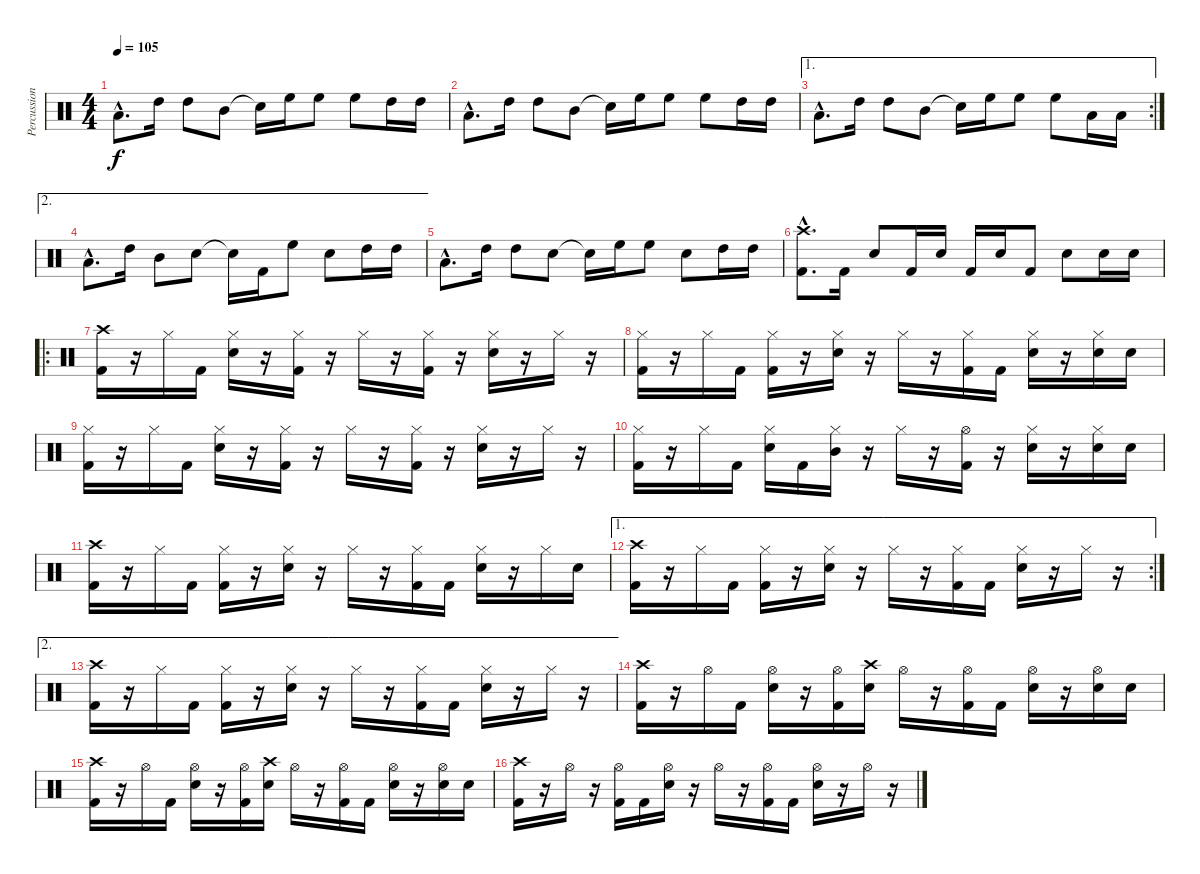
\track ("Percussion" "Percussion") {instrument percussion}
\staff {score}
\articulation defaults
\ts (4 4)
\tempo 105
\clef neutral
\ks c "Low Floor Tom (hit)"{hac}.8{d dy f} "High Tom (hit)".16 "High Tom (hit)".8 "Mid Tom (hit)".8 "Snare (hit)"{t}.16 "High Floor Tom (hit)".16 "High Floor Tom (hit)".8 "High Floor Tom (hit)".8 "High Tom (hit)".16 "High Tom (hit)".16
|
"Low Floor Tom (hit)"{hac}.8{d} "High Tom (hit)".16 "High Tom (hit)".8 "Mid Tom (hit)".8 "Snare (hit)"{t}.16 "High Floor Tom (hit)".16 "High Floor Tom (hit)".8 "High Floor Tom (hit)".8 "High Tom (hit)".16 "High Tom (hit)".16 |
\ae 1
\rc 2 "Low Floor Tom (hit)"{hac}.8{d} "High Tom (hit)".16 "High Tom (hit)".8 "Mid Tom (hit)".8 "Snare (hit)"{t}.16 "High Floor Tom (hit)".16 "High Floor Tom (hit)".8 "High Floor Tom (hit)".8 "Low Floor Tom (hit)".16 "Low Floor Tom (hit)".16
|
\ae 2 "Low Floor Tom (hit)"{hac}.8{d} "High Tom (hit)".16 "Mid Tom (hit)".8 "Snare (hit) 2".8 "Snare (hit)"{t}.16 "Kick (hit) 2".16 "High Floor Tom (hit)".8 "Snare (hit) 2".8 "High Tom (hit)".16 "High Tom (hit)".16
|
"Low Floor Tom (hit)"{hac}.8{d} "High Tom (hit)".16 "High Tom (hit)".8 "Snare (hit) 2".8 "Snare (hit)"{t}.16 "High Floor Tom (hit)".16 "High Floor Tom (hit)".8 "Snare (hit) 2".8 "High Tom (hit)".16 "High Tom (hit)".16 |
("Crash high (hit)"{hac} "Kick (hit) 2"{hac}).8{d} "Kick (hit) 2".16 "Snare (hit) 2".8 "Kick (hit) 2".16 "Snare (hit) 2".16 "Kick (hit) 2".16 "Snare (hit) 2".16 "Kick (hit) 2".8 "Snare (hit) 2".8 "Snare (hit) 2".16 "Snare (hit) 2".16 |
\ro
("Crash high (hit)" "Kick (hit) 2").16 r.16 "Hi-Hat (closed)".16 "Kick (hit) 2".16 ("Hi-Hat (closed)" "Snare (hit) 2").16 r.16 ("Hi-Hat (closed)" "Kick (hit) 2").16 r.16 "Hi-Hat (closed)".16 r.16 ("Hi-Hat (closed)" "Kick (hit) 2").16 r.16 ("Hi-Hat (closed)" "Snare (hit) 2").16 r.16 "Hi-Hat (closed)".16 r.16 |
("Hi-Hat (closed)" "Kick (hit) 2").16 r.16 "Hi-Hat (closed)".16 "Kick (hit) 2".16 ("Hi-Hat (closed)" "Kick (hit) 2").16 r.16 ("Hi-Hat (closed)" "Snare (hit) 2").16 r.16 "Hi-Hat (closed)".16 r.16 ("Hi-Hat (closed)" "Kick (hit) 2").16 "Kick (hit) 2".16 ("Hi-Hat (closed)" "Snare (hit) 2").16 r.16 ("Hi-Hat (closed)" "Snare (hit) 2").16 "Snare (hit) 2".16 |
("Hi-Hat (closed)" "Kick (hit) 2").16 r.16 "Hi-Hat (closed)".16 "Kick (hit) 2".16 ("Hi-Hat (closed)" "Snare (hit) 2").16 r.16 ("Hi-Hat (closed)" "Kick (hit) 2").16 r.16 "Hi-Hat (closed)".16 r.16 ("Hi-Hat (closed)" "Kick (hit) 2").16 r.16 ("Hi-Hat (closed)" "Snare (hit) 2").16 r.16 "Hi-Hat (closed)".16 r.16 |
("Hi-Hat (closed)" "Kick (hit) 2").16 r.16 "Hi-Hat (closed)".16 "Kick (hit) 2".16 ("Hi-Hat (closed)" "Snare (hit) 2").16 "Kick (hit) 2".16 ("Hi-Hat (closed)" "Mid Tom (hit)").16 r.16 "Hi-Hat (closed)".16 r.16 ("Hi-Hat (open)" "Kick (hit) 2").16 r.16 ("Hi-Hat (closed)" "Snare (hit) 2").16 r.16 ("Hi-Hat (closed)" "Snare (hit) 2").16 "Snare (hit) 2".16 |
("Crash high (hit)" "Kick (hit) 2").16 r.16 "Hi-Hat (closed)".16 "Kick (hit) 2".16 ("Hi-Hat (closed)" "Kick (hit) 2").16 r.16 ("Hi-Hat (closed)" "Snare (hit) 2").16 r.16 "Hi-Hat (closed)".16 r.16 ("Hi-Hat (closed)" "Kick (hit) 2").16 "Kick (hit) 2".16 ("Hi-Hat (closed)" "Snare (hit) 2").16 r.16 "Hi-Hat (closed)".16 "Snare (hit) 2".16 |
\ae 1
\rc 2
("Crash high (hit)" "Kick (hit) 2").16 r.16 "Hi-Hat (closed)".16 "Kick (hit) 2".16 ("Hi-Hat (closed)" "Kick (hit) 2").16 r.16 ("Hi-Hat (closed)" "Snare (hit) 2").16 r.16 "Hi-Hat (closed)".16 r.16 ("Hi-Hat (closed)" "Kick (hit) 2").16 "Kick (hit) 2".16 ("Hi-Hat (closed)" "Snare (hit) 2").16 r.16 "Hi-Hat (closed)".16 r.16 |
\ae 2
("Crash high (hit)" "Kick (hit) 2").16 r.16 "Hi-Hat (closed)".16 "Kick (hit) 2".16 ("Hi-Hat (closed)" "Kick (hit) 2").16 r.16 ("Hi-Hat (closed)" "Snare (hit) 2").16 r.16 "Hi-Hat (closed)".16 r.16 ("Hi-Hat (closed)" "Kick (hit) 2").16 "Kick (hit) 2".16 ("Hi-Hat (closed)" "Snare (hit) 2").16 r.16 "Hi-Hat (closed)".16 r.16 |
("Crash high (hit)" "Kick (hit) 2").16 r.16 "Hi-Hat (open)".16 "Kick (hit) 2".16 ("Hi-Hat (open)" "Snare (hit) 2").16 r.16 ("Hi-Hat (open)" "Kick (hit) 2").16 ("Crash high (hit)" "Snare (hit) 2").16 "Hi-Hat (open)".16 r.16 ("Hi-Hat (open)" "Kick (hit) 2").16 "Kick (hit) 2".16 ("Hi-Hat (open)" "Snare (hit) 2").16 r.16 ("Hi-Hat (open)" "Snare (hit) 2").16 "Snare (hit) 2".16 |
("Crash high (hit)" "Kick (hit) 2").16 r.16 "Hi-Hat (open)".16 "Kick (hit) 2".16 ("Hi-Hat (open)" "Snare (hit) 2").16 r.16 ("Hi-Hat (open)" "Kick (hit) 2").16 ("Crash high (hit)" "Snare (hit) 2").16 "Hi-Hat (open)".16 r.16 ("Hi-Hat (open)" "Kick (hit) 2").16 "Kick (hit) 2".16 ("Hi-Hat (open)" "Snare (hit) 2").16 r.16 ("Hi-Hat (open)" "Snare (hit) 2").16 "Snare (hit) 2".16 |
("Crash high (hit)" "Kick (hit) 2").16 r.16 "Hi-Hat (open)".16 r.16 ("Hi-Hat (open)" "Kick (hit) 2").16 "Kick (hit) 2".16 ("Hi-Hat (open)" "Snare (hit) 2").16 r.16 "Hi-Hat (open)".16 r.16 ("Hi-Hat (open)" "Kick (hit) 2").16 "Kick (hit) 2".16 ("Hi-Hat (open)" "Snare (hit) 2").16 r.16 "Hi-Hat (open)".16 r.16
